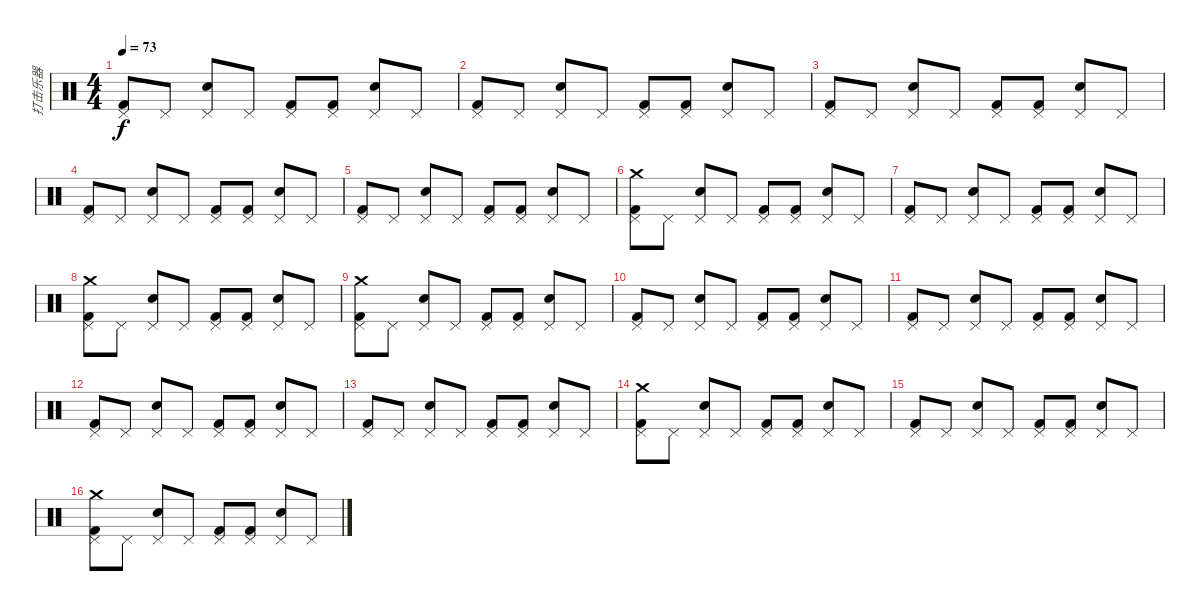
\track ("打击乐器" "打击乐器") {instrument percussion}
\staff {score}
\articulation defaults
\ts (4 4)
\tempo 73
\clef neutral
\ks c
("Kick (hit) 2" "Pedal Hi-Hat (hit)").8{dy f} "Pedal Hi-Hat (hit)".8 ("Electric Snare (hit)" "Pedal Hi-Hat (hit)").8 "Pedal Hi-Hat (hit)".8 ("Kick (hit) 2" "Pedal Hi-Hat (hit)").8 ("Kick (hit) 2" "Pedal Hi-Hat (hit)").8 ("Electric Snare (hit)" "Pedal Hi-Hat (hit)").8 "Pedal Hi-Hat (hit)".8 |
("Kick (hit) 2" "Pedal Hi-Hat (hit)").8 "Pedal Hi-Hat (hit)".8 ("Electric Snare (hit)" "Pedal Hi-Hat (hit)").8 "Pedal Hi-Hat (hit)".8 ("Kick (hit) 2" "Pedal Hi-Hat (hit)").8 ("Kick (hit) 2" "Pedal Hi-Hat (hit)").8 ("Electric Snare (hit)" "Pedal Hi-Hat (hit)").8 "Pedal Hi-Hat (hit)".8 |
("Kick (hit) 2" "Pedal Hi-Hat (hit)").8 "Pedal Hi-Hat (hit)".8 ("Electric Snare (hit)" "Pedal Hi-Hat (hit)").8 "Pedal Hi-Hat (hit)".8 ("Kick (hit) 2" "Pedal Hi-Hat (hit)").8 ("Kick (hit) 2" "Pedal Hi-Hat (hit)").8 ("Electric Snare (hit)" "Pedal Hi-Hat (hit)").8 "Pedal Hi-Hat (hit)".8 |
("Kick (hit) 2" "Pedal Hi-Hat (hit)").8 "Pedal Hi-Hat (hit)".8 ("Electric Snare (hit)" "Pedal Hi-Hat (hit)").8 "Pedal Hi-Hat (hit)".8 ("Kick (hit) 2" "Pedal Hi-Hat (hit)").8 ("Kick (hit) 2" "Pedal Hi-Hat (hit)").8 ("Electric Snare (hit)" "Pedal Hi-Hat (hit)").8 "Pedal Hi-Hat (hit)".8 |
("Kick (hit) 2" "Pedal Hi-Hat (hit)").8 "Pedal Hi-Hat (hit)".8 ("Electric Snare (hit)" "Pedal Hi-Hat (hit)").8 "Pedal Hi-Hat (hit)".8 ("Kick (hit) 2" "Pedal Hi-Hat (hit)").8 ("Kick (hit) 2" "Pedal Hi-Hat (hit)").8 ("Electric Snare (hit)" "Pedal Hi-Hat (hit)").8 "Pedal Hi-Hat (hit)".8 |
("Crash medium (hit)" "Kick (hit) 2" "Pedal Hi-Hat (hit)").8 "Pedal Hi-Hat (hit)".8 ("Electric Snare (hit)" "Pedal Hi-Hat (hit)").8 "Pedal Hi-Hat (hit)".8 ("Kick (hit) 2" "Pedal Hi-Hat (hit)").8 ("Kick (hit) 2" "Pedal Hi-Hat (hit)").8 ("Electric Snare (hit)" "Pedal Hi-Hat (hit)").8 "Pedal Hi-Hat (hit)".8 |
("Kick (hit) 2" "Pedal Hi-Hat (hit)").8 "Pedal Hi-Hat (hit)".8 ("Electric Snare (hit)" "Pedal Hi-Hat (hit)").8 "Pedal Hi-Hat (hit)".8 ("Kick (hit) 2" "Pedal Hi-Hat (hit)").8 ("Kick (hit) 2" "Pedal Hi-Hat (hit)").8 ("Electric Snare (hit)" "Pedal Hi-Hat (hit)").8 "Pedal Hi-Hat (hit)".8 |
("Crash medium (hit)" "Kick (hit) 2" "Pedal Hi-Hat (hit)").8 "Pedal Hi-Hat (hit)".8 ("Electric Snare (hit)" "Pedal Hi-Hat (hit)").8 "Pedal Hi-Hat (hit)".8 ("Kick (hit) 2" "Pedal Hi-Hat (hit)").8 ("Kick (hit) 2" "Pedal Hi-Hat (hit)").8 ("Electric Snare (hit)" "Pedal Hi-Hat (hit)").8 "Pedal Hi-Hat (hit)".8 |
("Crash medium (hit)" "Kick (hit) 2" "Pedal Hi-Hat (hit)").8 "Pedal Hi-Hat (hit)".8 ("Electric Snare (hit)" "Pedal Hi-Hat (hit)").8 "Pedal Hi-Hat (hit)".8 ("Kick (hit) 2" "Pedal Hi-Hat (hit)").8 ("Kick (hit) 2" "Pedal Hi-Hat (hit)").8 ("Electric Snare (hit)" "Pedal Hi-Hat (hit)").8 "Pedal Hi-Hat (hit)".8 |
("Kick (hit) 2" "Pedal Hi-Hat (hit)").8 "Pedal Hi-Hat (hit)".8 ("Electric Snare (hit)" "Pedal Hi-Hat (hit)").8 "Pedal Hi-Hat (hit)".8 ("Kick (hit) 2" "Pedal Hi-Hat (hit)").8 ("Kick (hit) 2" "Pedal Hi-Hat (hit)").8 ("Electric Snare (hit)" "Pedal Hi-Hat (hit)").8 "Pedal Hi-Hat (hit)".8 |
("Kick (hit) 2" "Pedal Hi-Hat (hit)").8 "Pedal Hi-Hat (hit)".8 ("Electric Snare (hit)" "Pedal Hi-Hat (hit)").8 "Pedal Hi-Hat (hit)".8 ("Kick (hit) 2" "Pedal Hi-Hat (hit)").8 ("Kick (hit) 2" "Pedal Hi-Hat (hit)").8 ("Electric Snare (hit)" "Pedal Hi-Hat (hit)").8 "Pedal Hi-Hat (hit)".8 |
("Kick (hit) 2" "Pedal Hi-Hat (hit)").8 "Pedal Hi-Hat (hit)".8 ("Electric Snare (hit)" "Pedal Hi-Hat (hit)").8 "Pedal Hi-Hat (hit)".8 ("Kick (hit) 2" "Pedal Hi-Hat (hit)").8 ("Kick (hit) 2" "Pedal Hi-Hat (hit)").8 ("Electric Snare (hit)" "Pedal Hi-Hat (hit)").8 "Pedal Hi-Hat (hit)".8 |
("Kick (hit) 2" "Pedal Hi-Hat (hit)").8 "Pedal Hi-Hat (hit)".8 ("Electric Snare (hit)" "Pedal Hi-Hat (hit)").8 "Pedal Hi-Hat (hit)".8 ("Kick (hit) 2" "Pedal Hi-Hat (hit)").8 ("Kick (hit) 2" "Pedal Hi-Hat (hit)").8 ("Electric Snare (hit)" "Pedal Hi-Hat (hit)").8 "Pedal Hi-Hat (hit)".8 |
("Crash medium (hit)" "Kick (hit) 2" "Pedal Hi-Hat (hit)").8 "Pedal Hi-Hat (hit)".8 ("Electric Snare (hit)" "Pedal Hi-Hat (hit)").8 "Pedal Hi-Hat (hit)".8 ("Kick (hit) 2" "Pedal Hi-Hat (hit)").8 ("Kick (hit) 2" "Pedal Hi-Hat (hit)").8 ("Electric Snare (hit)" "Pedal Hi-Hat (hit)").8 "Pedal Hi-Hat (hit)".8 |
("Kick (hit) 2" "Pedal Hi-Hat (hit)").8 "Pedal Hi-Hat (hit)".8 ("Electric Snare (hit)" "Pedal Hi-Hat (hit)").8 "Pedal Hi-Hat (hit)".8 ("Kick (hit) 2" "Pedal Hi-Hat (hit)").8 ("Kick (hit) 2" "Pedal Hi-Hat (hit)").8 ("Electric Snare (hit)" "Pedal Hi-Hat (hit)").8 "Pedal Hi-Hat (hit)".8 |
("Crash medium (hit)" "Kick (hit) 2" "Pedal Hi-Hat (hit)").8 "Pedal Hi-Hat (hit)".8 ("Electric Snare (hit)" "Pedal Hi-Hat (hit)").8 "Pedal Hi-Hat (hit)".8 ("Kick (hit) 2" "Pedal Hi-Hat (hit)").8 ("Kick (hit) 2" "Pedal Hi-Hat (hit)").8 ("Electric Snare (hit)" "Pedal Hi-Hat (hit)").8 "Pedal Hi-Hat (hit)".8
